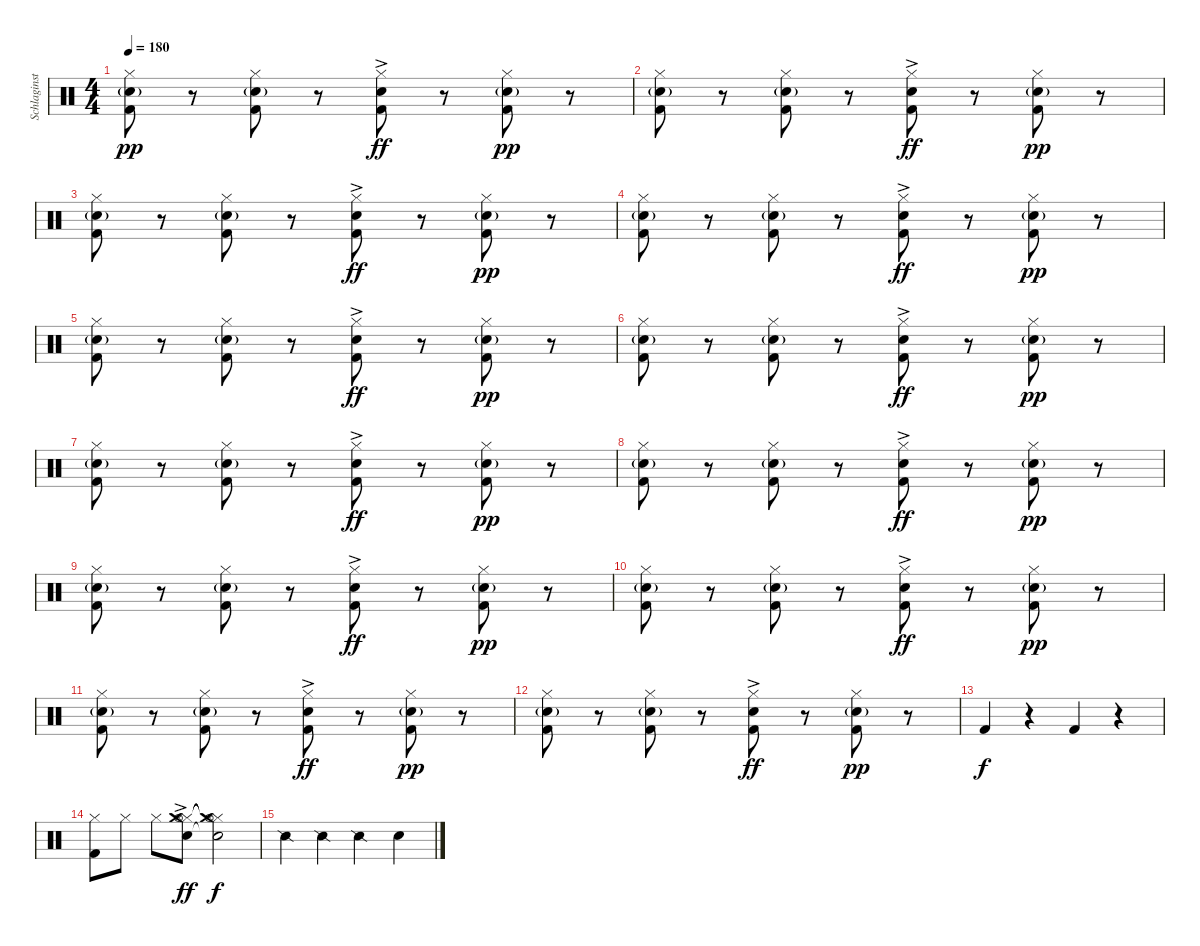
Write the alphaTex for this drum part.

\track ("Schlaginstrumente - Auswahl" "Schlaginst") {instrument percussion}
\staff {score}
\articulation defaults
\ts (4 4)
\tempo 180
\clef neutral
\ks c
("Hi-Hat (closed)" "Electric Snare (hit)"{g} "Kick (hit) 2").8{dy pp} r.8 ("Hi-Hat (closed)" "Electric Snare (hit)"{g} "Kick (hit) 2").8 r.8 ("Hi-Hat (closed)" "Electric Snare (hit)"{ac} "Kick (hit) 2").8{dy ff} r.8 ("Hi-Hat (closed)" "Electric Snare (hit)"{g} "Kick (hit) 2").8{dy pp} r.8 |
("Hi-Hat (closed)" "Electric Snare (hit)"{g} "Kick (hit) 2").8 r.8 ("Hi-Hat (closed)" "Electric Snare (hit)"{g} "Kick (hit) 2").8 r.8 ("Hi-Hat (closed)" "Electric Snare (hit)"{ac} "Kick (hit) 2").8{dy ff} r.8 ("Hi-Hat (closed)" "Electric Snare (hit)"{g} "Kick (hit) 2").8{dy pp} r.8 |
("Hi-Hat (closed)" "Electric Snare (hit)"{g} "Kick (hit) 2").8 r.8 ("Hi-Hat (closed)" "Electric Snare (hit)"{g} "Kick (hit) 2").8 r.8 ("Hi-Hat (closed)" "Electric Snare (hit)"{ac} "Kick (hit) 2").8{dy ff} r.8 ("Hi-Hat (closed)" "Electric Snare (hit)"{g} "Kick (hit) 2").8{dy pp} r.8 |
("Hi-Hat (closed)" "Electric Snare (hit)"{g} "Kick (hit) 2").8 r.8 ("Hi-Hat (closed)" "Electric Snare (hit)"{g} "Kick (hit) 2").8 r.8 ("Hi-Hat (closed)" "Electric Snare (hit)"{ac} "Kick (hit) 2").8{dy ff} r.8 ("Hi-Hat (closed)" "Electric Snare (hit)"{g} "Kick (hit) 2").8{dy pp} r.8 |
("Hi-Hat (closed)" "Electric Snare (hit)"{g} "Kick (hit) 2").8 r.8 ("Hi-Hat (closed)" "Electric Snare (hit)"{g} "Kick (hit) 2").8 r.8 ("Hi-Hat (closed)" "Electric Snare (hit)"{ac} "Kick (hit) 2").8{dy ff} r.8 ("Hi-Hat (closed)" "Electric Snare (hit)"{g} "Kick (hit) 2").8{dy pp} r.8 |
("Hi-Hat (closed)" "Electric Snare (hit)"{g} "Kick (hit) 2").8 r.8 ("Hi-Hat (closed)" "Electric Snare (hit)"{g} "Kick (hit) 2").8 r.8 ("Hi-Hat (closed)" "Electric Snare (hit)"{ac} "Kick (hit) 2").8{dy ff} r.8 ("Hi-Hat (closed)" "Electric Snare (hit)"{g} "Kick (hit) 2").8{dy pp} r.8 |
("Hi-Hat (closed)" "Electric Snare (hit)"{g} "Kick (hit) 2").8 r.8 ("Hi-Hat (closed)" "Electric Snare (hit)"{g} "Kick (hit) 2").8 r.8 ("Hi-Hat (closed)" "Electric Snare (hit)"{ac} "Kick (hit) 2").8{dy ff} r.8 ("Hi-Hat (closed)" "Electric Snare (hit)"{g} "Kick (hit) 2").8{dy pp} r.8 |
("Hi-Hat (closed)" "Electric Snare (hit)"{g} "Kick (hit) 2").8 r.8 ("Hi-Hat (closed)" "Electric Snare (hit)"{g} "Kick (hit) 2").8 r.8 ("Hi-Hat (closed)" "Electric Snare (hit)"{ac} "Kick (hit) 2").8{dy ff} r.8 ("Hi-Hat (closed)" "Electric Snare (hit)"{g} "Kick (hit) 2").8{dy pp} r.8 |
("Hi-Hat (closed)" "Electric Snare (hit)"{g} "Kick (hit) 2").8 r.8 ("Hi-Hat (closed)" "Electric Snare (hit)"{g} "Kick (hit) 2").8 r.8 ("Hi-Hat (closed)" "Electric Snare (hit)"{ac} "Kick (hit) 2").8{dy ff} r.8 ("Hi-Hat (closed)" "Electric Snare (hit)"{g} "Kick (hit) 2").8{dy pp} r.8 |
("Hi-Hat (closed)" "Electric Snare (hit)"{g} "Kick (hit) 2").8 r.8 ("Hi-Hat (closed)" "Electric Snare (hit)"{g} "Kick (hit) 2").8 r.8 ("Hi-Hat (closed)" "Electric Snare (hit)"{ac} "Kick (hit) 2").8{dy ff} r.8 ("Hi-Hat (closed)" "Electric Snare (hit)"{g} "Kick (hit) 2").8{dy pp} r.8 |
("Hi-Hat (closed)" "Electric Snare (hit)"{g} "Kick (hit) 2").8 r.8 ("Hi-Hat (closed)" "Electric Snare (hit)"{g} "Kick (hit) 2").8 r.8 ("Hi-Hat (closed)" "Electric Snare (hit)"{ac} "Kick (hit) 2").8{dy ff} r.8 ("Hi-Hat (closed)" "Electric Snare (hit)"{g} "Kick (hit) 2").8{dy pp} r.8 |
("Hi-Hat (closed)" "Electric Snare (hit)"{g} "Kick (hit) 2").8 r.8 ("Hi-Hat (closed)" "Electric Snare (hit)"{g} "Kick (hit) 2").8 r.8 ("Hi-Hat (closed)" "Electric Snare (hit)"{ac} "Kick (hit) 2").8{dy ff} r.8 ("Hi-Hat (closed)" "Electric Snare (hit)"{g} "Kick (hit) 2").8{dy pp} r.8 |
"Kick (hit) 2".4{dy f} r.4 "Kick (hit) 2".4 r.4 |
("Hi-Hat (closed)" "Kick (hit) 2").8 "Hi-Hat (closed)".8 "Hi-Hat (closed)".8 ("Hi-Hat (closed)" "Electric Snare (hit)" "Hi-Hat (open)"{ac} "Crash medium (hit)"{ac}).8{dy ff} ("Hi-Hat (closed)"{t} "Electric Snare (hit)"{t} "Hi-Hat (open)"{t} "Crash medium (hit)"{t}).2{dy f} |
"Snare (side stick) 2".4 "Snare (side stick) 2".4 "Snare (side stick) 2".4 "Snare (hit) 2".4
